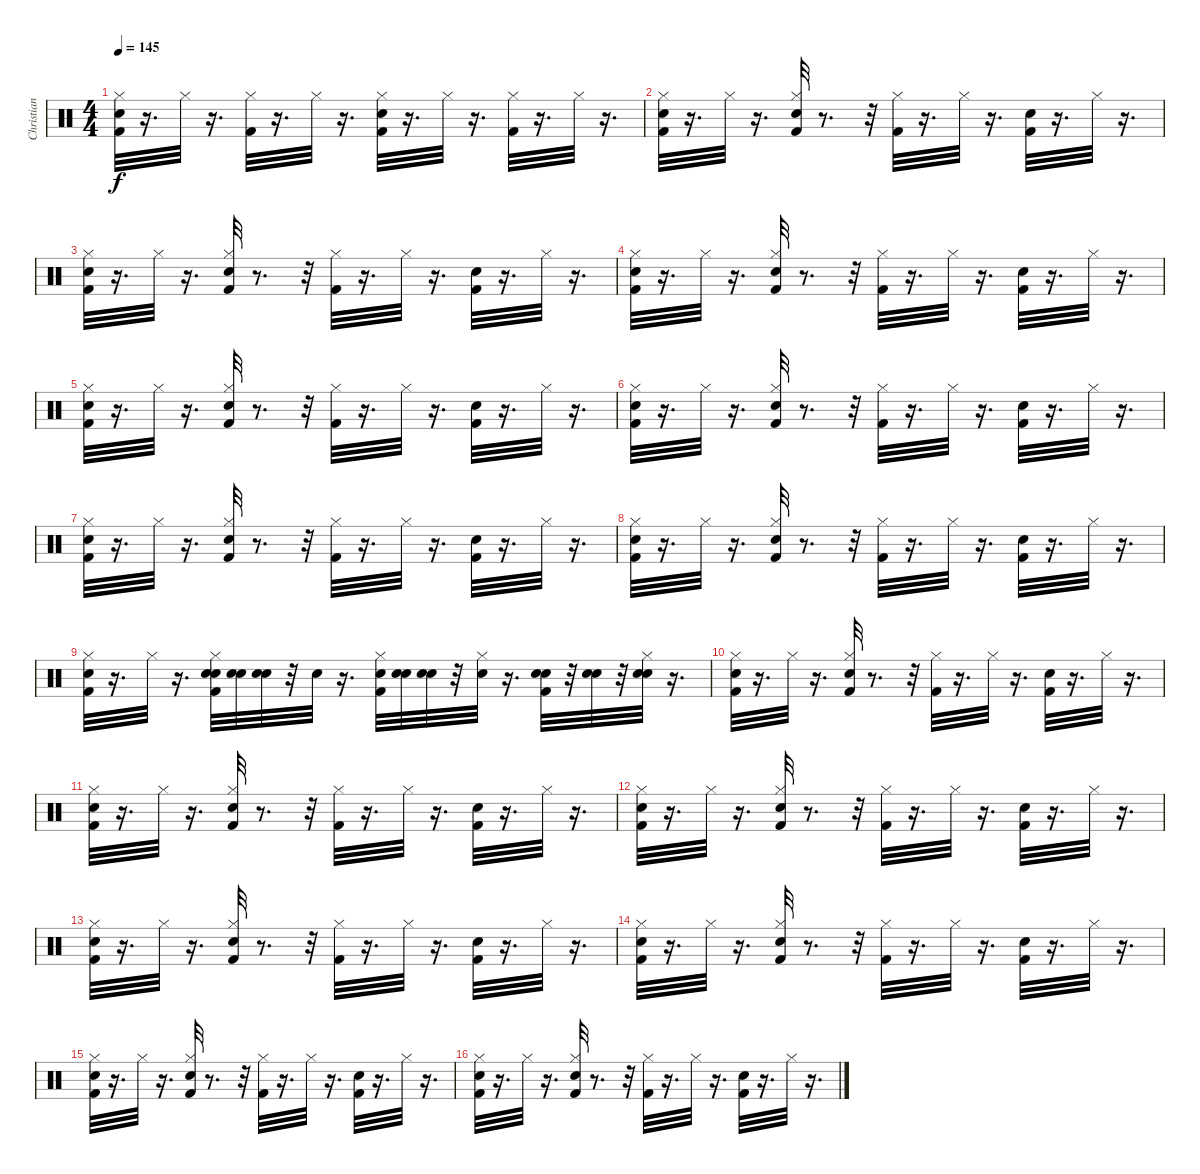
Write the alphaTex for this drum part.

\track ("Christian Paredes" "Christian ") {instrument percussion}
\staff {score}
\articulation defaults
\ts (4 4)
\tempo 145
\clef neutral
\ks c
("Snare (hit) 2" "Hi-Hat (closed)" "Kick (hit) 2").32{dy f} r.16{d} "Hi-Hat (closed)".32 r.16{d} ("Hi-Hat (closed)" "Kick (hit) 2").32 r.16{d} "Hi-Hat (closed)".32 r.16{d} ("Snare (hit) 2" "Hi-Hat (closed)" "Kick (hit) 2").32 r.16{d} "Hi-Hat (closed)".32 r.16{d} ("Hi-Hat (closed)" "Kick (hit) 2").32 r.16{d} "Hi-Hat (closed)".32 r.16{d} |
("Snare (hit) 2" "Hi-Hat (closed)" "Kick (hit) 2").32 r.16{d} "Hi-Hat (closed)".32 r.16{d} ("Snare (hit) 2" "Hi-Hat (closed)" "Kick (hit) 2").32 r.8{d} r.32 ("Kick (hit) 2" "Hi-Hat (closed)").32 r.16{d} "Hi-Hat (closed)".32 r.16{d} ("Kick (hit) 2" "Snare (hit) 2").32 r.16{d} "Hi-Hat (closed)".32 r.16{d} |
("Snare (hit) 2" "Hi-Hat (closed)" "Kick (hit) 2").32 r.16{d} "Hi-Hat (closed)".32 r.16{d} ("Snare (hit) 2" "Hi-Hat (closed)" "Kick (hit) 2").32 r.8{d} r.32 ("Kick (hit) 2" "Hi-Hat (closed)").32 r.16{d} "Hi-Hat (closed)".32 r.16{d} ("Kick (hit) 2" "Snare (hit) 2").32 r.16{d} "Hi-Hat (closed)".32 r.16{d} |
("Snare (hit) 2" "Hi-Hat (closed)" "Kick (hit) 2").32 r.16{d} "Hi-Hat (closed)".32 r.16{d} ("Snare (hit) 2" "Hi-Hat (closed)" "Kick (hit) 2").32 r.8{d} r.32 ("Kick (hit) 2" "Hi-Hat (closed)").32 r.16{d} "Hi-Hat (closed)".32 r.16{d} ("Kick (hit) 2" "Snare (hit) 2").32 r.16{d} "Hi-Hat (closed)".32 r.16{d} |
("Snare (hit) 2" "Hi-Hat (closed)" "Kick (hit) 2").32 r.16{d} "Hi-Hat (closed)".32 r.16{d} ("Snare (hit) 2" "Hi-Hat (closed)" "Kick (hit) 2").32 r.8{d} r.32 ("Kick (hit) 2" "Hi-Hat (closed)").32 r.16{d} "Hi-Hat (closed)".32 r.16{d} ("Kick (hit) 2" "Snare (hit) 2").32 r.16{d} "Hi-Hat (closed)".32 r.16{d} |
("Snare (hit) 2" "Hi-Hat (closed)" "Kick (hit) 2").32 r.16{d} "Hi-Hat (closed)".32 r.16{d} ("Snare (hit) 2" "Hi-Hat (closed)" "Kick (hit) 2").32 r.8{d} r.32 ("Kick (hit) 2" "Hi-Hat (closed)").32 r.16{d} "Hi-Hat (closed)".32 r.16{d} ("Kick (hit) 2" "Snare (hit) 2").32 r.16{d} "Hi-Hat (closed)".32 r.16{d} |
("Hi-Hat (closed)" "Kick (hit) 2" "Snare (hit) 2").32 r.16{d} "Hi-Hat (closed)".32 r.16{d} ("Snare (hit) 2" "Hi-Hat (closed)" "Kick (hit) 2").32 r.8{d} r.32 ("Kick (hit) 2" "Hi-Hat (closed)").32 r.16{d} "Hi-Hat (closed)".32 r.16{d} ("Kick (hit) 2" "Snare (hit) 2").32 r.16{d} "Hi-Hat (closed)".32 r.16{d} |
("Snare (hit) 2" "Hi-Hat (closed)" "Kick (hit) 2").32 r.16{d} "Hi-Hat (closed)".32 r.16{d} ("Snare (hit) 2" "Hi-Hat (closed)" "Kick (hit) 2").32 r.8{d} r.32 ("Kick (hit) 2" "Hi-Hat (closed)").32 r.16{d} "Hi-Hat (closed)".32 r.16{d} ("Kick (hit) 2" "Snare (hit) 2").32 r.16{d} "Hi-Hat (closed)".32 r.16{d} |
("Snare (hit) 2" "Hi-Hat (closed)" "Kick (hit) 2").32 r.16{d} "Hi-Hat (closed)".32 r.16{d} ("Electric Snare (hit)" "Snare (hit) 2" "Hi-Hat (closed)" "Kick (hit) 2").32 ("Electric Snare (hit)" "Snare (hit) 2").32 ("Electric Snare (hit)" "Snare (hit) 2").32 r.32 "Electric Snare (hit)".32 r.16{d} ("Snare (hit) 2" "Kick (hit) 2" "Hi-Hat (closed)").32 ("Electric Snare (hit)" "Snare (hit) 2").32 ("Electric Snare (hit)" "Snare (hit) 2").32 r.32 ("Snare (hit) 2" "Hi-Hat (closed)").32 r.16{d} ("Electric Snare (hit)" "Kick (hit) 2" "Snare (hit) 2").32 r.32 ("Electric Snare (hit)" "Snare (hit) 2").32 r.32 ("Electric Snare (hit)" "Snare (hit) 2" "Hi-Hat (closed)").32 r.16{d} |
("Snare (hit) 2" "Hi-Hat (closed)" "Kick (hit) 2").32 r.16{d} "Hi-Hat (closed)".32 r.16{d} ("Snare (hit) 2" "Hi-Hat (closed)" "Kick (hit) 2").32 r.8{d} r.32 ("Kick (hit) 2" "Hi-Hat (closed)").32 r.16{d} "Hi-Hat (closed)".32 r.16{d} ("Kick (hit) 2" "Snare (hit) 2").32 r.16{d} "Hi-Hat (closed)".32 r.16{d} |
("Hi-Hat (closed)" "Kick (hit) 2" "Snare (hit) 2").32 r.16{d} "Hi-Hat (closed)".32 r.16{d} ("Snare (hit) 2" "Hi-Hat (closed)" "Kick (hit) 2").32 r.8{d} r.32 ("Kick (hit) 2" "Hi-Hat (closed)").32 r.16{d} "Hi-Hat (closed)".32 r.16{d} ("Kick (hit) 2" "Snare (hit) 2").32 r.16{d} "Hi-Hat (closed)".32 r.16{d} |
("Snare (hit) 2" "Hi-Hat (closed)" "Kick (hit) 2").32 r.16{d} "Hi-Hat (closed)".32 r.16{d} ("Snare (hit) 2" "Hi-Hat (closed)" "Kick (hit) 2").32 r.8{d} r.32 ("Kick (hit) 2" "Hi-Hat (closed)").32 r.16{d} "Hi-Hat (closed)".32 r.16{d} ("Kick (hit) 2" "Snare (hit) 2").32 r.16{d} "Hi-Hat (closed)".32 r.16{d} |
("Hi-Hat (closed)" "Kick (hit) 2" "Snare (hit) 2").32 r.16{d} "Hi-Hat (closed)".32 r.16{d} ("Snare (hit) 2" "Hi-Hat (closed)" "Kick (hit) 2").32 r.8{d} r.32 ("Kick (hit) 2" "Hi-Hat (closed)").32 r.16{d} "Hi-Hat (closed)".32 r.16{d} ("Kick (hit) 2" "Snare (hit) 2").32 r.16{d} "Hi-Hat (closed)".32 r.16{d} |
("Snare (hit) 2" "Hi-Hat (closed)" "Kick (hit) 2").32 r.16{d} "Hi-Hat (closed)".32 r.16{d} ("Snare (hit) 2" "Hi-Hat (closed)" "Kick (hit) 2").32 r.8{d} r.32 ("Kick (hit) 2" "Hi-Hat (closed)").32 r.16{d} "Hi-Hat (closed)".32 r.16{d} ("Kick (hit) 2" "Snare (hit) 2").32 r.16{d} "Hi-Hat (closed)".32 r.16{d} |
("Hi-Hat (closed)" "Kick (hit) 2" "Snare (hit) 2").32 r.16{d} "Hi-Hat (closed)".32 r.16{d} ("Snare (hit) 2" "Hi-Hat (closed)" "Kick (hit) 2").32 r.8{d} r.32 ("Kick (hit) 2" "Hi-Hat (closed)").32 r.16{d} "Hi-Hat (closed)".32 r.16{d} ("Kick (hit) 2" "Snare (hit) 2").32 r.16{d} "Hi-Hat (closed)".32 r.16{d} |
("Snare (hit) 2" "Hi-Hat (closed)" "Kick (hit) 2").32 r.16{d} "Hi-Hat (closed)".32 r.16{d} ("Snare (hit) 2" "Hi-Hat (closed)" "Kick (hit) 2").32 r.8{d} r.32 ("Kick (hit) 2" "Hi-Hat (closed)").32 r.16{d} "Hi-Hat (closed)".32 r.16{d} ("Kick (hit) 2" "Snare (hit) 2").32 r.16{d} "Hi-Hat (closed)".32 r.16{d}
